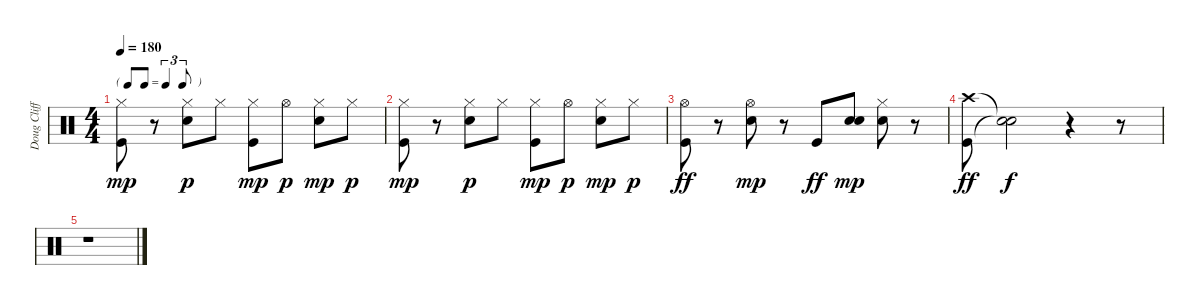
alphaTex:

\track ("Doug Clifford" "Doug Cliff") {instrument percussion}
\staff {score}
\articulation defaults
\ts (4 4)
\tf triplet8th
\tempo 180
\clef neutral
\ks c
("Kick (hit)" "Hi-Hat (closed)").8{dy mp} r.8 ("Snare (hit) 2" "Hi-Hat (closed)").8{dy p} "Hi-Hat (closed)".8 ("Kick (hit)" "Hi-Hat (closed)").8{dy mp} "Hi-Hat (open)".8{dy p} ("Snare (hit) 2" "Hi-Hat (closed)").8{dy mp} "Hi-Hat (closed)".8{dy p} |
("Kick (hit)" "Hi-Hat (closed)").8{dy mp} r.8 ("Snare (hit) 2" "Hi-Hat (closed)").8{dy p} "Hi-Hat (closed)".8 ("Kick (hit)" "Hi-Hat (closed)").8{dy mp} "Hi-Hat (open)".8{dy p} ("Snare (hit) 2" "Hi-Hat (closed)").8{dy mp} "Hi-Hat (closed)".8{dy p} |
("Hi-Hat (open)" "Kick (hit)").8{dy ff} r.8 ("Snare (hit) 2" "Hi-Hat (open)").8{dy mp} r.8 "Kick (hit)".8{dy ff} ("Snare (hit) 2" "Snare (hit) 2").8{dy mp} ("Snare (hit) 2" "Hi-Hat (closed)").8 r.8 |
("Crash high (hit)" "Kick (hit)").8{dy ff} ("Snare (hit)"{t} "Snare (hit)"{t}).2{dy f} r.4 r.8 |
r.1
